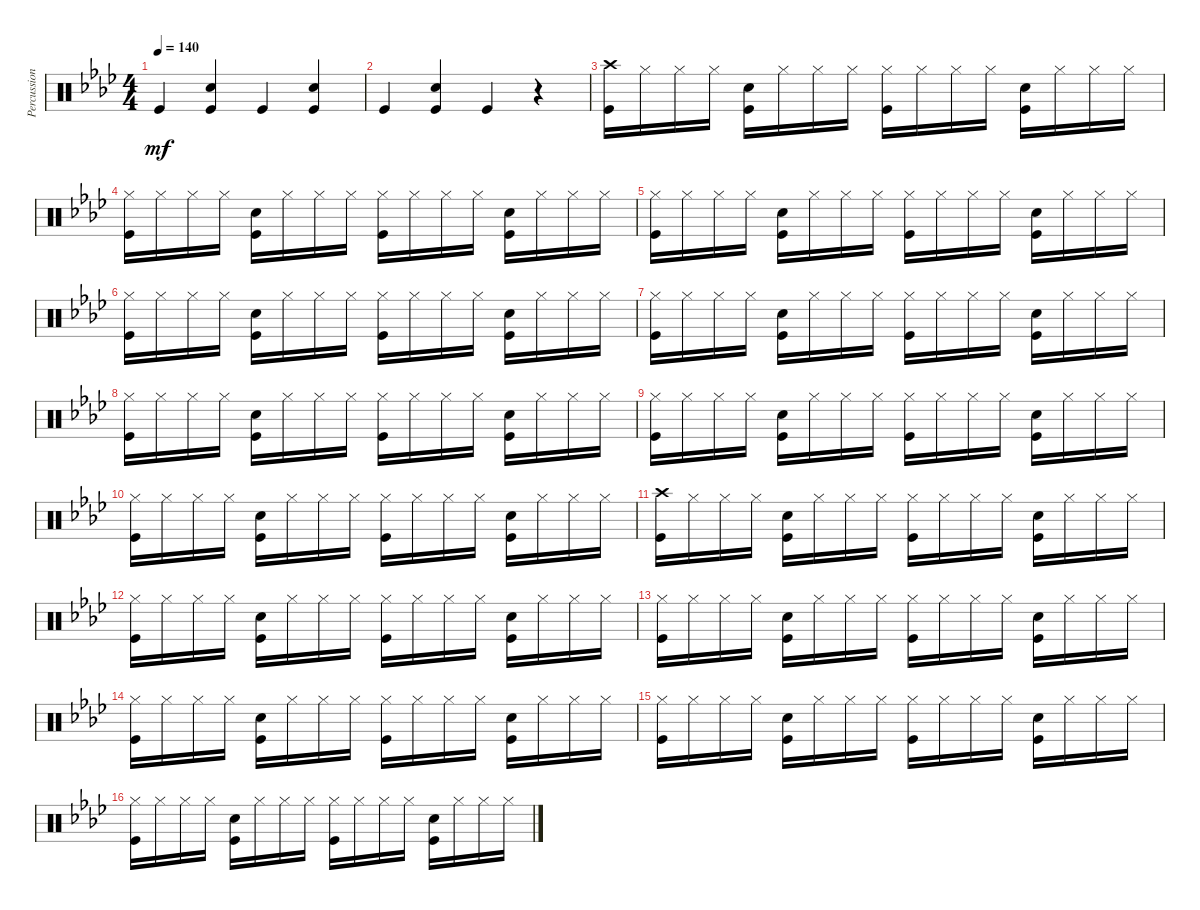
\track ("Percussion" "Percussion") {instrument percussion}
\staff {score}
\articulation defaults
\ts (4 4)
\tempo 140
\clef neutral
\ks ab "Kick (hit)".4{dy mf}
("Snare (hit) 2" "Kick (hit)").4 "Kick (hit)".4 ("Snare (hit) 2" "Kick (hit)").4 |
"Kick (hit)".4 ("Snare (hit) 2" "Kick (hit)").4 "Kick (hit)".4 r.4 |
("Crash high (hit)" "Kick (hit)").16 "Hi-Hat (closed)".16 "Hi-Hat (closed)".16 "Hi-Hat (closed)".16 ("Snare (hit) 2" "Kick (hit)").16 "Hi-Hat (closed)".16 "Hi-Hat (closed)".16 "Hi-Hat (closed)".16 ("Hi-Hat (closed)" "Kick (hit)").16 "Hi-Hat (closed)".16 "Hi-Hat (closed)".16 "Hi-Hat (closed)".16 ("Snare (hit) 2" "Kick (hit)").16 "Hi-Hat (closed)".16 "Hi-Hat (closed)".16 "Hi-Hat (closed)".16 |
("Hi-Hat (closed)" "Kick (hit)").16 "Hi-Hat (closed)".16 "Hi-Hat (closed)".16 "Hi-Hat (closed)".16 ("Snare (hit) 2" "Kick (hit)").16 "Hi-Hat (closed)".16 "Hi-Hat (closed)".16 "Hi-Hat (closed)".16 ("Hi-Hat (closed)" "Kick (hit)").16 "Hi-Hat (closed)".16 "Hi-Hat (closed)".16 "Hi-Hat (closed)".16 ("Snare (hit) 2" "Kick (hit)").16 "Hi-Hat (closed)".16 "Hi-Hat (closed)".16 "Hi-Hat (closed)".16 |
("Hi-Hat (closed)" "Kick (hit)").16 "Hi-Hat (closed)".16 "Hi-Hat (closed)".16 "Hi-Hat (closed)".16 ("Snare (hit) 2" "Kick (hit)").16 "Hi-Hat (closed)".16 "Hi-Hat (closed)".16 "Hi-Hat (closed)".16 ("Hi-Hat (closed)" "Kick (hit)").16 "Hi-Hat (closed)".16 "Hi-Hat (closed)".16 "Hi-Hat (closed)".16 ("Snare (hit) 2" "Kick (hit)").16 "Hi-Hat (closed)".16 "Hi-Hat (closed)".16 "Hi-Hat (closed)".16 |
("Hi-Hat (closed)" "Kick (hit)").16 "Hi-Hat (closed)".16 "Hi-Hat (closed)".16 "Hi-Hat (closed)".16 ("Snare (hit) 2" "Kick (hit)").16 "Hi-Hat (closed)".16 "Hi-Hat (closed)".16 "Hi-Hat (closed)".16 ("Hi-Hat (closed)" "Kick (hit)").16 "Hi-Hat (closed)".16 "Hi-Hat (closed)".16 "Hi-Hat (closed)".16 ("Snare (hit) 2" "Kick (hit)").16 "Hi-Hat (closed)".16 "Hi-Hat (closed)".16 "Hi-Hat (closed)".16 |
("Hi-Hat (closed)" "Kick (hit)").16 "Hi-Hat (closed)".16 "Hi-Hat (closed)".16 "Hi-Hat (closed)".16 ("Snare (hit) 2" "Kick (hit)").16 "Hi-Hat (closed)".16 "Hi-Hat (closed)".16 "Hi-Hat (closed)".16 ("Hi-Hat (closed)" "Kick (hit)").16 "Hi-Hat (closed)".16 "Hi-Hat (closed)".16 "Hi-Hat (closed)".16 ("Snare (hit) 2" "Kick (hit)").16 "Hi-Hat (closed)".16 "Hi-Hat (closed)".16 "Hi-Hat (closed)".16 |
("Hi-Hat (closed)" "Kick (hit)").16 "Hi-Hat (closed)".16 "Hi-Hat (closed)".16 "Hi-Hat (closed)".16 ("Snare (hit) 2" "Kick (hit)").16 "Hi-Hat (closed)".16 "Hi-Hat (closed)".16 "Hi-Hat (closed)".16 ("Hi-Hat (closed)" "Kick (hit)").16 "Hi-Hat (closed)".16 "Hi-Hat (closed)".16 "Hi-Hat (closed)".16 ("Snare (hit) 2" "Kick (hit)").16 "Hi-Hat (closed)".16 "Hi-Hat (closed)".16 "Hi-Hat (closed)".16 |
("Hi-Hat (closed)" "Kick (hit)").16 "Hi-Hat (closed)".16 "Hi-Hat (closed)".16 "Hi-Hat (closed)".16 ("Snare (hit) 2" "Kick (hit)").16 "Hi-Hat (closed)".16 "Hi-Hat (closed)".16 "Hi-Hat (closed)".16 ("Hi-Hat (closed)" "Kick (hit)").16 "Hi-Hat (closed)".16 "Hi-Hat (closed)".16 "Hi-Hat (closed)".16 ("Snare (hit) 2" "Kick (hit)").16 "Hi-Hat (closed)".16 "Hi-Hat (closed)".16 "Hi-Hat (closed)".16 |
("Hi-Hat (closed)" "Kick (hit)").16 "Hi-Hat (closed)".16 "Hi-Hat (closed)".16 "Hi-Hat (closed)".16 ("Snare (hit) 2" "Kick (hit)").16 "Hi-Hat (closed)".16 "Hi-Hat (closed)".16 "Hi-Hat (closed)".16 ("Hi-Hat (closed)" "Kick (hit)").16 "Hi-Hat (closed)".16 "Hi-Hat (closed)".16 "Hi-Hat (closed)".16 ("Snare (hit) 2" "Kick (hit)").16 "Hi-Hat (closed)".16 "Hi-Hat (closed)".16 "Hi-Hat (closed)".16 |
("Crash high (hit)" "Kick (hit)").16 "Hi-Hat (closed)".16 "Hi-Hat (closed)".16 "Hi-Hat (closed)".16 ("Snare (hit) 2" "Kick (hit)").16 "Hi-Hat (closed)".16 "Hi-Hat (closed)".16 "Hi-Hat (closed)".16 ("Hi-Hat (closed)" "Kick (hit)").16 "Hi-Hat (closed)".16 "Hi-Hat (closed)".16 "Hi-Hat (closed)".16 ("Snare (hit) 2" "Kick (hit)").16 "Hi-Hat (closed)".16 "Hi-Hat (closed)".16 "Hi-Hat (closed)".16 |
("Hi-Hat (closed)" "Kick (hit)").16 "Hi-Hat (closed)".16 "Hi-Hat (closed)".16 "Hi-Hat (closed)".16 ("Snare (hit) 2" "Kick (hit)").16 "Hi-Hat (closed)".16 "Hi-Hat (closed)".16 "Hi-Hat (closed)".16 ("Hi-Hat (closed)" "Kick (hit)").16 "Hi-Hat (closed)".16 "Hi-Hat (closed)".16 "Hi-Hat (closed)".16 ("Snare (hit) 2" "Kick (hit)").16 "Hi-Hat (closed)".16 "Hi-Hat (closed)".16 "Hi-Hat (closed)".16 |
("Hi-Hat (closed)" "Kick (hit)").16 "Hi-Hat (closed)".16 "Hi-Hat (closed)".16 "Hi-Hat (closed)".16 ("Snare (hit) 2" "Kick (hit)").16 "Hi-Hat (closed)".16 "Hi-Hat (closed)".16 "Hi-Hat (closed)".16 ("Hi-Hat (closed)" "Kick (hit)").16 "Hi-Hat (closed)".16 "Hi-Hat (closed)".16 "Hi-Hat (closed)".16 ("Snare (hit) 2" "Kick (hit)").16 "Hi-Hat (closed)".16 "Hi-Hat (closed)".16 "Hi-Hat (closed)".16 |
("Hi-Hat (closed)" "Kick (hit)").16 "Hi-Hat (closed)".16 "Hi-Hat (closed)".16 "Hi-Hat (closed)".16 ("Snare (hit) 2" "Kick (hit)").16 "Hi-Hat (closed)".16 "Hi-Hat (closed)".16 "Hi-Hat (closed)".16 ("Hi-Hat (closed)" "Kick (hit)").16 "Hi-Hat (closed)".16 "Hi-Hat (closed)".16 "Hi-Hat (closed)".16 ("Snare (hit) 2" "Kick (hit)").16 "Hi-Hat (closed)".16 "Hi-Hat (closed)".16 "Hi-Hat (closed)".16 |
("Hi-Hat (closed)" "Kick (hit)").16 "Hi-Hat (closed)".16 "Hi-Hat (closed)".16 "Hi-Hat (closed)".16 ("Snare (hit) 2" "Kick (hit)").16 "Hi-Hat (closed)".16 "Hi-Hat (closed)".16 "Hi-Hat (closed)".16 ("Hi-Hat (closed)" "Kick (hit)").16 "Hi-Hat (closed)".16 "Hi-Hat (closed)".16 "Hi-Hat (closed)".16 ("Snare (hit) 2" "Kick (hit)").16 "Hi-Hat (closed)".16 "Hi-Hat (closed)".16 "Hi-Hat (closed)".16 |
("Hi-Hat (closed)" "Kick (hit)").16 "Hi-Hat (closed)".16 "Hi-Hat (closed)".16 "Hi-Hat (closed)".16 ("Snare (hit) 2" "Kick (hit)").16 "Hi-Hat (closed)".16 "Hi-Hat (closed)".16 "Hi-Hat (closed)".16 ("Hi-Hat (closed)" "Kick (hit)").16 "Hi-Hat (closed)".16 "Hi-Hat (closed)".16 "Hi-Hat (closed)".16 ("Snare (hit) 2" "Kick (hit)").16 "Hi-Hat (closed)".16 "Hi-Hat (closed)".16 "Hi-Hat (closed)".16
